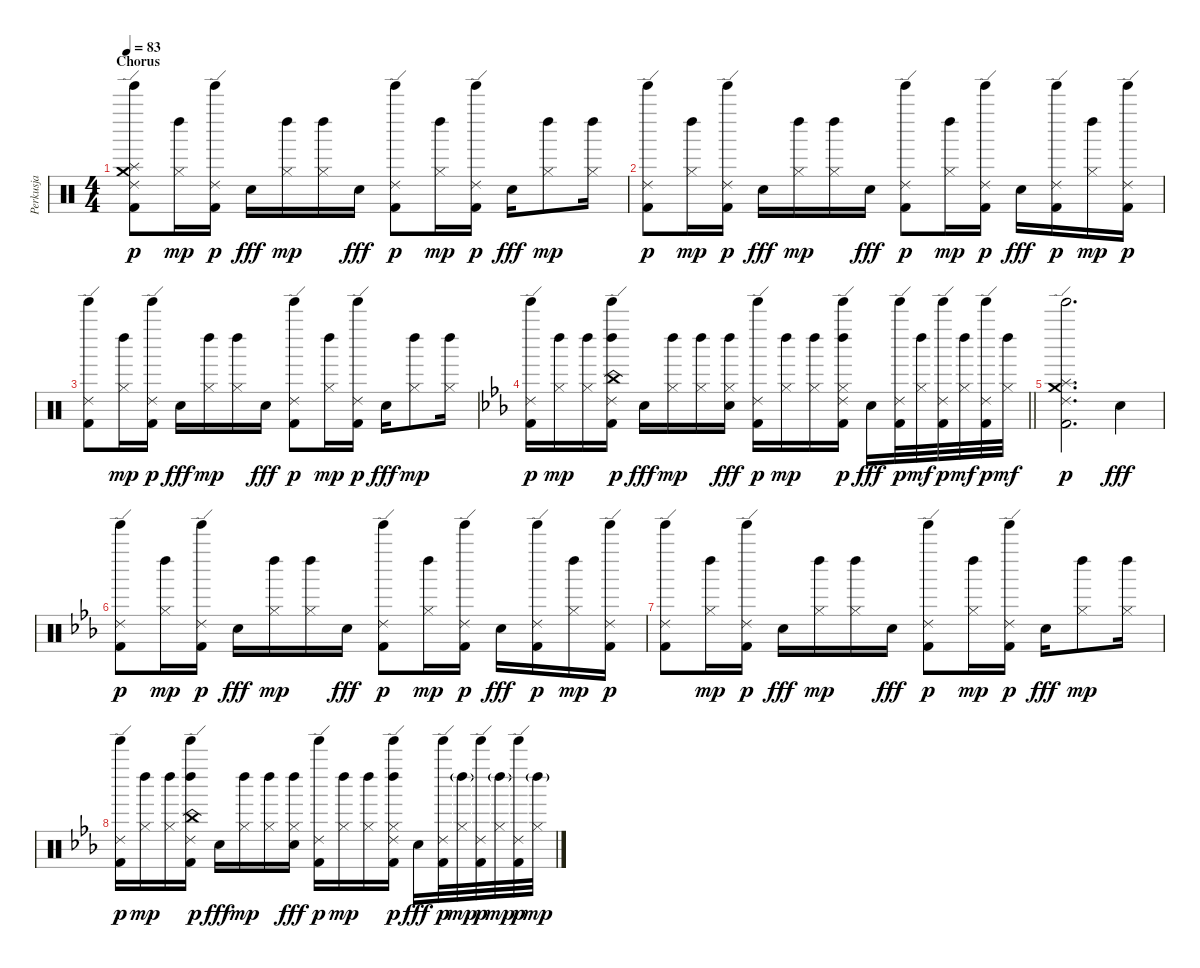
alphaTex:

\track ("Perkusja" "Perkusja") {instrument percussion}
\staff {score}
\articulation defaults
\ts (4 4)
\section ("" "Chorus")
\tempo 83
\clef neutral
\ks c
("Crash medium (hit)" "Splash (hit)" "Tinkle Bell (hit)" "Ride (edge) 2" "Kick (hit) 2").8{dy p} ("Hi-Hat (closed)" "Left Maraca (hit)").16{dy mp} ("Tinkle Bell (hit)" "Ride (edge) 2" "Kick (hit) 2").16{dy p} "Hand Clap (hit)".16{dy fff} ("Hi-Hat (closed)" "Left Maraca (hit)").16{dy mp} ("Hi-Hat (closed)" "Left Maraca (hit)").16 "Hand Clap (hit)".16{dy fff} ("Tinkle Bell (hit)" "Ride (edge) 2" "Kick (hit) 2").8{dy p} ("Hi-Hat (closed)" "Left Maraca (hit)").16{dy mp} ("Tinkle Bell (hit)" "Ride (edge) 2" "Kick (hit) 2").16{dy p} "Hand Clap (hit)".16{dy fff} ("Hi-Hat (closed)" "Left Maraca (hit)").8{dy mp} ("Hi-Hat (closed)" "Left Maraca (hit)").16 |
("Tinkle Bell (hit)" "Ride (edge) 2" "Kick (hit) 2").8{dy p} ("Hi-Hat (closed)" "Left Maraca (hit)").16{dy mp} ("Tinkle Bell (hit)" "Ride (edge) 2" "Kick (hit) 2").16{dy p} "Hand Clap (hit)".16{dy fff} ("Hi-Hat (closed)" "Left Maraca (hit)").16{dy mp} ("Hi-Hat (closed)" "Left Maraca (hit)").16 "Hand Clap (hit)".16{dy fff} ("Tinkle Bell (hit)" "Ride (edge) 2" "Kick (hit) 2").8{dy p} ("Hi-Hat (closed)" "Left Maraca (hit)").16{dy mp} ("Tinkle Bell (hit)" "Ride (edge) 2" "Kick (hit) 2").16{dy p} "Hand Clap (hit)".16{dy fff} ("Tinkle Bell (hit)" "Ride (edge) 2" "Kick (hit) 2").16{dy p} ("Hi-Hat (closed)" "Left Maraca (hit)").16{dy mp} ("Tinkle Bell (hit)" "Ride (edge) 2" "Kick (hit) 2").16{dy p} |
("Tinkle Bell (hit)" "Ride (edge) 2" "Kick (hit) 2").8 ("Hi-Hat (closed)" "Left Maraca (hit)").16{dy mp} ("Tinkle Bell (hit)" "Ride (edge) 2" "Kick (hit) 2").16{dy p} "Hand Clap (hit)".16{dy fff} ("Hi-Hat (closed)" "Left Maraca (hit)").16{dy mp} ("Hi-Hat (closed)" "Left Maraca (hit)").16 "Hand Clap (hit)".16{dy fff} ("Tinkle Bell (hit)" "Ride (edge) 2" "Kick (hit) 2").8{dy p} ("Hi-Hat (closed)" "Left Maraca (hit)").16{dy mp} ("Tinkle Bell (hit)" "Ride (edge) 2" "Kick (hit) 2").16{dy p} "Hand Clap (hit)".16{dy fff} ("Hi-Hat (closed)" "Left Maraca (hit)").8{dy mp} ("Hi-Hat (closed)" "Left Maraca (hit)").16 |
\barLineRight lightlight
\ks eb
("Tinkle Bell (hit)" "Ride (edge) 2" "Kick (hit) 2").16{dy p} ("Hi-Hat (closed)" "Left Maraca (hit)").16{dy mp} ("Hi-Hat (closed)" "Left Maraca (hit)").16 ("China (hit)" "Left Maraca (hit)" "Tinkle Bell (hit)" "Ride (edge) 2" "Kick (hit) 2").16{dy p} "Hand Clap (hit)".16{dy fff} ("Hi-Hat (closed)" "Left Maraca (hit)").16{dy mp} ("Hi-Hat (closed)" "Left Maraca (hit)").16 ("Hi-Hat (closed)" "Left Maraca (hit)" "Hand Clap (hit)").16{dy fff} ("Tinkle Bell (hit)" "Ride (edge) 2" "Kick (hit) 2").16{dy p} ("Hi-Hat (closed)" "Left Maraca (hit)").16{dy mp} ("Hi-Hat (closed)" "Left Maraca (hit)").16 ("Hi-Hat (closed)" "Left Maraca (hit)" "Tinkle Bell (hit)" "Ride (edge) 2" "Kick (hit) 2").16{dy p} "Hand Clap (hit)".16{dy fff} ("Tinkle Bell (hit)" "Ride (edge) 2" "Kick (hit) 2").32{dy p} ("Hi-Hat (closed)" "Left Maraca (hit)").32{dy mf} ("Tinkle Bell (hit)" "Ride (edge) 2" "Kick (hit) 2").32{dy p} ("Hi-Hat (closed)" "Left Maraca (hit)").32{dy mf} ("Tinkle Bell (hit)" "Ride (edge) 2" "Kick (hit) 2").32{dy p} ("Hi-Hat (closed)" "Left Maraca (hit)").32{dy mf} |
("Crash medium (hit)" "Splash (hit)" "Tinkle Bell (hit)" "Ride (edge) 2" "Kick (hit) 2").2{d dy p} "Hand Clap (hit)".4{dy fff} |
("Tinkle Bell (hit)" "Ride (edge) 2" "Kick (hit) 2").8{dy p} ("Hi-Hat (closed)" "Left Maraca (hit)").16{dy mp} ("Tinkle Bell (hit)" "Ride (edge) 2" "Kick (hit) 2").16{dy p} "Hand Clap (hit)".16{dy fff} ("Hi-Hat (closed)" "Left Maraca (hit)").16{dy mp} ("Hi-Hat (closed)" "Left Maraca (hit)").16 "Hand Clap (hit)".16{dy fff} ("Tinkle Bell (hit)" "Ride (edge) 2" "Kick (hit) 2").8{dy p} ("Hi-Hat (closed)" "Left Maraca (hit)").16{dy mp} ("Tinkle Bell (hit)" "Ride (edge) 2" "Kick (hit) 2").16{dy p} "Hand Clap (hit)".16{dy fff} ("Tinkle Bell (hit)" "Ride (edge) 2" "Kick (hit) 2").16{dy p} ("Hi-Hat (closed)" "Left Maraca (hit)").16{dy mp} ("Tinkle Bell (hit)" "Ride (edge) 2" "Kick (hit) 2").16{dy p} |
("Tinkle Bell (hit)" "Ride (edge) 2" "Kick (hit) 2").8 ("Hi-Hat (closed)" "Left Maraca (hit)").16{dy mp} ("Tinkle Bell (hit)" "Ride (edge) 2" "Kick (hit) 2").16{dy p} "Hand Clap (hit)".16{dy fff} ("Hi-Hat (closed)" "Left Maraca (hit)").16{dy mp} ("Hi-Hat (closed)" "Left Maraca (hit)").16 "Hand Clap (hit)".16{dy fff} ("Tinkle Bell (hit)" "Ride (edge) 2" "Kick (hit) 2").8{dy p} ("Hi-Hat (closed)" "Left Maraca (hit)").16{dy mp} ("Tinkle Bell (hit)" "Ride (edge) 2" "Kick (hit) 2").16{dy p} "Hand Clap (hit)".16{dy fff} ("Hi-Hat (closed)" "Left Maraca (hit)").8{dy mp} ("Hi-Hat (closed)" "Left Maraca (hit)").16 |
("Tinkle Bell (hit)" "Ride (edge) 2" "Kick (hit) 2").16{dy p} ("Hi-Hat (closed)" "Left Maraca (hit)").16{dy mp} ("Hi-Hat (closed)" "Left Maraca (hit)").16 ("China (hit)" "Left Maraca (hit)" "Tinkle Bell (hit)" "Ride (edge) 2" "Kick (hit) 2").16{dy p} "Hand Clap (hit)".16{dy fff} ("Hi-Hat (closed)" "Left Maraca (hit)").16{dy mp} ("Hi-Hat (closed)" "Left Maraca (hit)").16 ("Hi-Hat (closed)" "Left Maraca (hit)" "Hand Clap (hit)").16{dy fff} ("Tinkle Bell (hit)" "Ride (edge) 2" "Kick (hit) 2").16{dy p} ("Hi-Hat (closed)" "Left Maraca (hit)").16{dy mp} ("Hi-Hat (closed)" "Left Maraca (hit)").16 ("Hi-Hat (closed)" "Left Maraca (hit)" "Tinkle Bell (hit)" "Ride (edge) 2" "Kick (hit) 2").16{dy p} "Hand Clap (hit)".16{dy fff} ("Tinkle Bell (hit)" "Ride (edge) 2" "Kick (hit) 2").32{dy p} ("Hi-Hat (closed)" "Left Maraca (hit)"{g}).32{dy mp} ("Tinkle Bell (hit)" "Ride (edge) 2" "Kick (hit) 2").32{dy p} ("Hi-Hat (closed)" "Left Maraca (hit)"{g}).32{dy mp} ("Tinkle Bell (hit)" "Ride (edge) 2" "Kick (hit) 2").32{dy p} ("Hi-Hat (closed)" "Left Maraca (hit)"{g}).32{dy mp}
